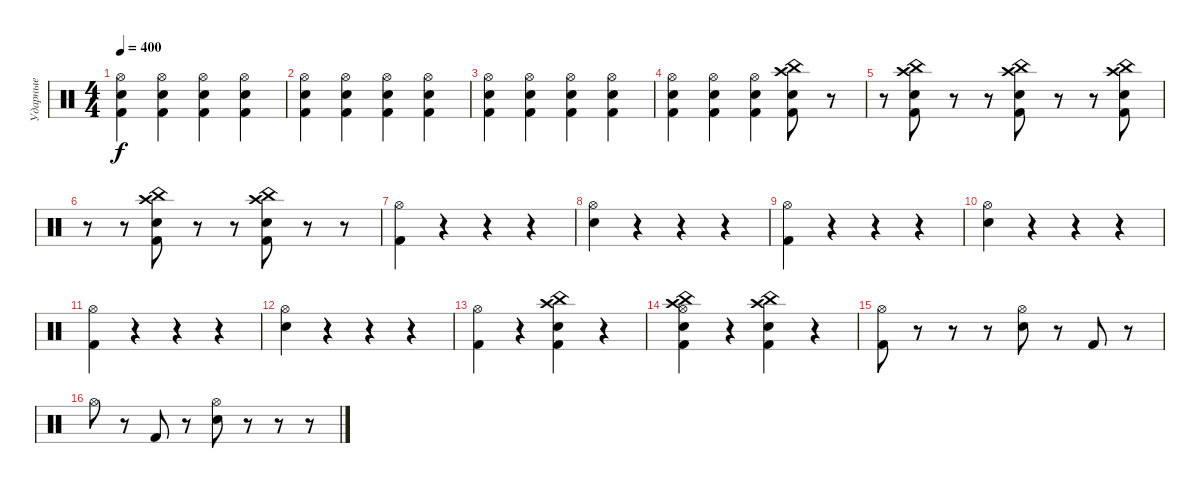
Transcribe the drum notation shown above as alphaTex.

\track ("Ударные" "Ударные") {instrument percussion}
\staff {score}
\articulation defaults
\ts (4 4)
\tempo 400
\clef neutral
\ks c
("Electric Snare (hit)" "Kick (hit) 2" "Hi-Hat (open)").4{dy f} ("Hi-Hat (open)" "Kick (hit) 2" "Electric Snare (hit)").4 ("Electric Snare (hit)" "Kick (hit) 2" "Hi-Hat (open)").4 ("Hi-Hat (open)" "Kick (hit) 2" "Electric Snare (hit)").4 |
("Electric Snare (hit)" "Kick (hit) 2" "Hi-Hat (open)").4 ("Hi-Hat (open)" "Kick (hit) 2" "Electric Snare (hit)").4 ("Electric Snare (hit)" "Kick (hit) 2" "Hi-Hat (open)").4 ("Hi-Hat (open)" "Kick (hit) 2" "Electric Snare (hit)").4 |
("Electric Snare (hit)" "Kick (hit) 2" "Hi-Hat (open)").4 ("Hi-Hat (open)" "Kick (hit) 2" "Electric Snare (hit)").4 ("Electric Snare (hit)" "Kick (hit) 2" "Hi-Hat (open)").4 ("Hi-Hat (open)" "Kick (hit) 2" "Electric Snare (hit)").4 |
("Electric Snare (hit)" "Kick (hit) 2" "Hi-Hat (open)").4 ("Hi-Hat (open)" "Kick (hit) 2" "Electric Snare (hit)").4 ("Electric Snare (hit)" "Kick (hit) 2" "Hi-Hat (open)").4 ("Kick (hit) 2" "Electric Snare (hit)" "Crash high (hit)" "China (hit)").8 r.8 |
r.8 ("China (hit)" "Crash high (hit)" "Kick (hit) 2" "Electric Snare (hit)").8 r.8 r.8 ("Electric Snare (hit)" "Kick (hit) 2" "Crash high (hit)" "China (hit)").8 r.8 r.8 ("China (hit)" "Crash high (hit)" "Kick (hit) 2" "Electric Snare (hit)").8 |
r.8 r.8 ("Electric Snare (hit)" "Kick (hit) 2" "Crash high (hit)" "China (hit)").8 r.8 r.8 ("China (hit)" "Kick (hit) 2" "Electric Snare (hit)" "Crash high (hit)").8 r.8 r.8 |
("Kick (hit) 2" "Hi-Hat (open)").4 r.4 r.4 r.4 |
("Electric Snare (hit)" "Hi-Hat (open)").4 r.4 r.4 r.4 |
("Kick (hit) 2" "Hi-Hat (open)").4 r.4 r.4 r.4 |
("Electric Snare (hit)" "Hi-Hat (open)").4 r.4 r.4 r.4 |
("Kick (hit) 2" "Hi-Hat (open)").4 r.4 r.4 r.4 |
("Electric Snare (hit)" "Hi-Hat (open)").4 r.4 r.4 r.4 |
("Kick (hit) 2" "Hi-Hat (open)").4 r.4 ("Kick (hit) 2" "Electric Snare (hit)" "Crash high (hit)" "China (hit)").4 r.4 |
("Electric Snare (hit)" "Hi-Hat (open)" "China (hit)" "Crash high (hit)" "Kick (hit) 2").4 r.4 ("Kick (hit) 2" "Electric Snare (hit)" "Crash high (hit)" "China (hit)").4 r.4 |
("Kick (hit) 2" "Hi-Hat (open)").8 r.8 r.8 r.8 ("Electric Snare (hit)" "Hi-Hat (open)").8 r.8 "Kick (hit) 2".8 r.8 |
"Hi-Hat (open)".8 r.8 "Kick (hit) 2".8 r.8 ("Electric Snare (hit)" "Hi-Hat (open)").8 r.8 r.8 r.8
